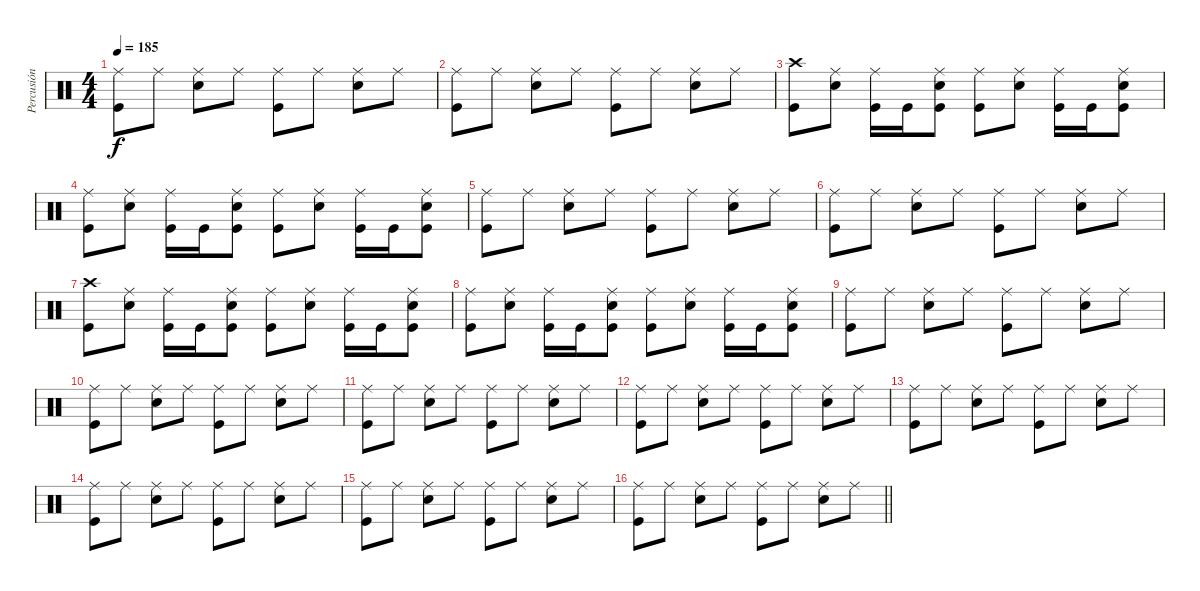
\track ("Percusión" "Percusión") {instrument percussion}
\staff {score}
\articulation defaults
\ts (4 4)
\tempo 185
\clef neutral
\ks c
("Kick (hit)" "Ride (middle)").8{dy f} "Ride (middle)".8 ("Ride (middle)" "Snare (hit) 2").8 "Ride (middle)".8 ("Ride (middle)" "Kick (hit)").8 "Ride (middle)".8 ("Ride (middle)" "Snare (hit) 2").8 "Ride (middle)".8 |
("Ride (middle)" "Kick (hit)").8 "Ride (middle)".8 ("Ride (middle)" "Snare (hit) 2").8 "Ride (middle)".8 ("Ride (middle)" "Kick (hit)").8 "Ride (middle)".8 ("Ride (middle)" "Snare (hit) 2").8 "Ride (middle)".8 |
("Kick (hit)" "Crash high (hit)").8 ("Snare (hit) 2" "Ride (middle)").8 ("Kick (hit)" "Ride (middle)").16 "Kick (hit)".16 ("Kick (hit)" "Ride (middle)" "Snare (hit) 2").8 ("Kick (hit)" "Ride (middle)").8 ("Snare (hit) 2" "Ride (middle)").8 ("Kick (hit)" "Ride (middle)").16 "Kick (hit)".16 ("Kick (hit)" "Ride (middle)" "Snare (hit) 2").8 |
("Kick (hit)" "Ride (middle)").8 ("Snare (hit) 2" "Ride (middle)").8 ("Kick (hit)" "Ride (middle)").16 "Kick (hit)".16 ("Kick (hit)" "Ride (middle)" "Snare (hit) 2").8 ("Kick (hit)" "Ride (middle)").8 ("Snare (hit) 2" "Ride (middle)").8 ("Kick (hit)" "Ride (middle)").16 "Kick (hit)".16 ("Kick (hit)" "Ride (middle)" "Snare (hit) 2").8 |
("Kick (hit)" "Ride (middle)").8 "Ride (middle)".8 ("Ride (middle)" "Snare (hit) 2").8 "Ride (middle)".8 ("Ride (middle)" "Kick (hit)").8 "Ride (middle)".8 ("Ride (middle)" "Snare (hit) 2").8 "Ride (middle)".8 |
("Ride (middle)" "Kick (hit)").8 "Ride (middle)".8 ("Ride (middle)" "Snare (hit) 2").8 "Ride (middle)".8 ("Ride (middle)" "Kick (hit)").8 "Ride (middle)".8 ("Ride (middle)" "Snare (hit) 2").8 "Ride (middle)".8 |
("Kick (hit)" "Crash high (hit)").8 ("Snare (hit) 2" "Ride (middle)").8 ("Kick (hit)" "Ride (middle)").16 "Kick (hit)".16 ("Kick (hit)" "Ride (middle)" "Snare (hit) 2").8 ("Kick (hit)" "Ride (middle)").8 ("Snare (hit) 2" "Ride (middle)").8 ("Kick (hit)" "Ride (middle)").16 "Kick (hit)".16 ("Kick (hit)" "Ride (middle)" "Snare (hit) 2").8 |
("Kick (hit)" "Ride (middle)").8 ("Snare (hit) 2" "Ride (middle)").8 ("Kick (hit)" "Ride (middle)").16 "Kick (hit)".16 ("Kick (hit)" "Ride (middle)" "Snare (hit) 2").8 ("Kick (hit)" "Ride (middle)").8 ("Snare (hit) 2" "Ride (middle)").8 ("Kick (hit)" "Ride (middle)").16 "Kick (hit)".16 ("Kick (hit)" "Ride (middle)" "Snare (hit) 2").8 |
("Kick (hit)" "Ride (middle)").8 "Ride (middle)".8 ("Ride (middle)" "Snare (hit) 2").8 "Ride (middle)".8 ("Ride (middle)" "Kick (hit)").8 "Ride (middle)".8 ("Ride (middle)" "Snare (hit) 2").8 "Ride (middle)".8 |
("Ride (middle)" "Kick (hit)").8 "Ride (middle)".8 ("Ride (middle)" "Snare (hit) 2").8 "Ride (middle)".8 ("Ride (middle)" "Kick (hit)").8 "Ride (middle)".8 ("Ride (middle)" "Snare (hit) 2").8 "Ride (middle)".8 |
("Kick (hit)" "Ride (middle)").8 "Ride (middle)".8 ("Ride (middle)" "Snare (hit) 2").8 "Ride (middle)".8 ("Ride (middle)" "Kick (hit)").8 "Ride (middle)".8 ("Ride (middle)" "Snare (hit) 2").8 "Ride (middle)".8 |
("Ride (middle)" "Kick (hit)").8 "Ride (middle)".8 ("Ride (middle)" "Snare (hit) 2").8 "Ride (middle)".8 ("Ride (middle)" "Kick (hit)").8 "Ride (middle)".8 ("Ride (middle)" "Snare (hit) 2").8 "Ride (middle)".8 |
("Kick (hit)" "Ride (middle)").8 "Ride (middle)".8 ("Ride (middle)" "Snare (hit) 2").8 "Ride (middle)".8 ("Ride (middle)" "Kick (hit)").8 "Ride (middle)".8 ("Ride (middle)" "Snare (hit) 2").8 "Ride (middle)".8 |
("Ride (middle)" "Kick (hit)").8 "Ride (middle)".8 ("Ride (middle)" "Snare (hit) 2").8 "Ride (middle)".8 ("Ride (middle)" "Kick (hit)").8 "Ride (middle)".8 ("Ride (middle)" "Snare (hit) 2").8 "Ride (middle)".8 |
("Kick (hit)" "Ride (middle)").8 "Ride (middle)".8 ("Ride (middle)" "Snare (hit) 2").8 "Ride (middle)".8 ("Ride (middle)" "Kick (hit)").8 "Ride (middle)".8 ("Ride (middle)" "Snare (hit) 2").8 "Ride (middle)".8 |
\barLineRight lightlight
("Ride (middle)" "Kick (hit)").8 "Ride (middle)".8 ("Ride (middle)" "Snare (hit) 2").8 "Ride (middle)".8 ("Ride (middle)" "Kick (hit)").8 "Ride (middle)".8 ("Ride (middle)" "Snare (hit) 2").8 "Ride (middle)".8
